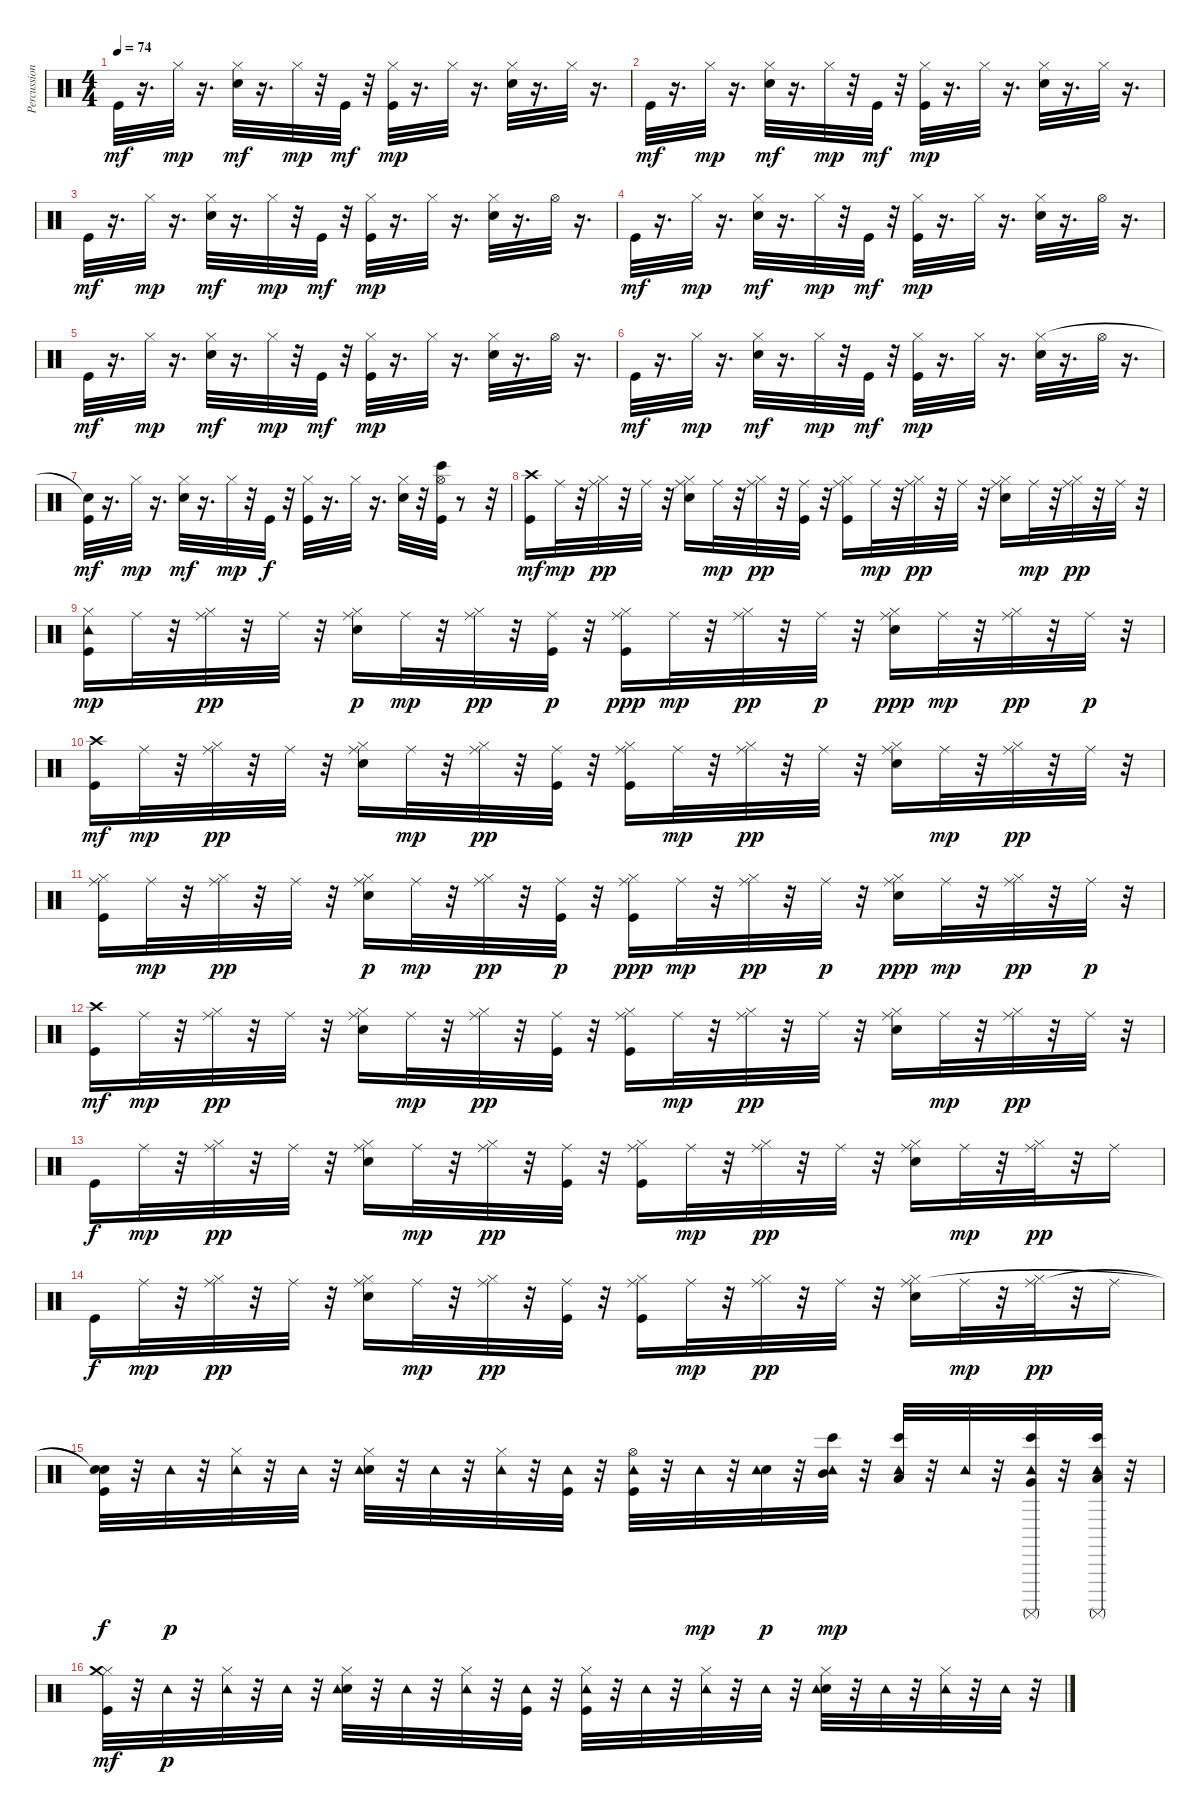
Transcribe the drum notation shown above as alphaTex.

\track ("Percussion" "Percussion") {instrument percussion}
\staff {score}
\articulation defaults
\ts (4 4)
\tempo 74
\clef neutral
\ks c "Kick (hit)".32{dy mf}
r.16{d} "Hi-Hat (closed)".32{dy mp} r.16{d} ("Snare (hit) 2" "Hi-Hat (closed)").32{dy mf} r.16{d} "Hi-Hat (closed)".32{dy mp} r.32 "Kick (hit)".32{dy mf} r.32 ("Kick (hit)" "Hi-Hat (closed)").32{dy mp} r.16{d} "Hi-Hat (closed)".32 r.16{d} ("Snare (hit) 2" "Hi-Hat (closed)").32 r.16{d} "Hi-Hat (closed)".32 r.16{d} |
"Kick (hit)".32{dy mf} r.16{d} "Hi-Hat (closed)".32{dy mp} r.16{d} ("Snare (hit) 2" "Hi-Hat (closed)").32{dy mf} r.16{d} "Hi-Hat (closed)".32{dy mp} r.32 "Kick (hit)".32{dy mf} r.32 ("Kick (hit)" "Hi-Hat (closed)").32{dy mp} r.16{d} "Hi-Hat (closed)".32 r.16{d} ("Snare (hit) 2" "Hi-Hat (closed)").32 r.16{d} "Hi-Hat (closed)".32 r.16{d} |
"Kick (hit)".32{dy mf} r.16{d} "Hi-Hat (closed)".32{dy mp} r.16{d} ("Snare (hit) 2" "Hi-Hat (closed)").32{dy mf} r.16{d} "Hi-Hat (closed)".32{dy mp} r.32 "Kick (hit)".32{dy mf} r.32 ("Kick (hit)" "Hi-Hat (closed)").32{dy mp} r.16{d} "Hi-Hat (closed)".32 r.16{d} ("Snare (hit) 2" "Hi-Hat (closed)").32 r.16{d} "Hi-Hat (open)".32 r.16{d} |
"Kick (hit)".32{dy mf} r.16{d} "Hi-Hat (closed)".32{dy mp} r.16{d} ("Snare (hit) 2" "Hi-Hat (closed)").32{dy mf} r.16{d} "Hi-Hat (closed)".32{dy mp} r.32 "Kick (hit)".32{dy mf} r.32 ("Kick (hit)" "Hi-Hat (closed)").32{dy mp} r.16{d} "Hi-Hat (closed)".32 r.16{d} ("Snare (hit) 2" "Hi-Hat (closed)").32 r.16{d} "Hi-Hat (open)".32 r.16{d} |
"Kick (hit)".32{dy mf} r.16{d} "Hi-Hat (closed)".32{dy mp} r.16{d} ("Snare (hit) 2" "Hi-Hat (closed)").32{dy mf} r.16{d} "Hi-Hat (closed)".32{dy mp} r.32 "Kick (hit)".32{dy mf} r.32 ("Kick (hit)" "Hi-Hat (closed)").32{dy mp} r.16{d} "Hi-Hat (closed)".32 r.16{d} ("Snare (hit) 2" "Hi-Hat (closed)").32 r.16{d} "Hi-Hat (open)".32 r.16{d} |
"Kick (hit)".32{dy mf} r.16{d} "Hi-Hat (closed)".32{dy mp} r.16{d} ("Snare (hit) 2" "Hi-Hat (closed)").32{dy mf} r.16{d} "Hi-Hat (closed)".32{dy mp} r.32 "Kick (hit)".32{dy mf} r.32 ("Kick (hit)" "Hi-Hat (closed)").32{dy mp} r.16{d} "Hi-Hat (closed)".32 r.16{d} ("Snare (hit) 2" "Hi-Hat (closed)").32 r.16{d} "Hi-Hat (open)".32 r.16{d} |
("Kick (hit)" "Snare (hit)"{t}).32{dy mf} r.16{d} "Hi-Hat (closed)".32{dy mp} r.16{d} ("Snare (hit) 2" "Hi-Hat (closed)").32{dy mf} r.16{d} "Hi-Hat (closed)".32{dy mp} r.32 "Kick (hit)".32{dy f} r.32 ("Kick (hit)" "Hi-Hat (closed)").32 r.16{d} "Hi-Hat (closed)".32 r.16{d} ("Snare (hit) 2" "Hi-Hat (closed)").32 r.32 ("Kick (hit)" "Hi-Hat (open)" "Bongo High (hit)").32 r.8 r.32 |
("Kick (hit)" "Crash high (hit)").16{dy mf} "Ride (middle)".32{dy mp} r.32 ("Hi-Hat (closed)" "Ride (middle)").32{dy pp} r.32 "Ride (middle)".32 r.32 ("Snare (hit) 2" "Hi-Hat (closed)" "Ride (middle)").16 "Ride (middle)".32{dy mp} r.32 ("Hi-Hat (closed)" "Ride (middle)").32{dy pp} r.32 ("Kick (hit)" "Ride (middle)").32 r.32 ("Kick (hit)" "Hi-Hat (closed)" "Ride (middle)").16 "Ride (middle)".32{dy mp} r.32 ("Hi-Hat (closed)" "Ride (middle)").32{dy pp} r.32 "Ride (middle)".32 r.32 ("Snare (hit) 2" "Hi-Hat (closed)" "Ride (middle)").16 "Ride (middle)".32{dy mp} r.32 ("Hi-Hat (closed)" "Ride (middle)").32{dy pp} r.32 "Ride (middle)".32 r.32 |
("Kick (hit)" "Hi-Hat (closed)" "Tambourine (hit)").16{dy mp} "Ride (middle)".32 r.32 ("Hi-Hat (closed)" "Ride (middle)").32{dy pp} r.32 "Ride (middle)".32 r.32 ("Snare (hit) 2" "Hi-Hat (closed)" "Ride (middle)").16{dy p} "Ride (middle)".32{dy mp} r.32 ("Hi-Hat (closed)" "Ride (middle)").32{dy pp} r.32 ("Kick (hit)" "Ride (middle)").32{dy p} r.32 ("Kick (hit)" "Hi-Hat (closed)" "Ride (middle)").16{dy ppp} "Ride (middle)".32{dy mp} r.32 ("Hi-Hat (closed)" "Ride (middle)").32{dy pp} r.32 "Ride (middle)".32{dy p} r.32 ("Snare (hit) 2" "Hi-Hat (closed)" "Ride (middle)").16{dy ppp} "Ride (middle)".32{dy mp} r.32 ("Hi-Hat (closed)" "Ride (middle)").32{dy pp} r.32 "Ride (middle)".32{dy p} r.32 |
("Kick (hit)" "Crash high (hit)").16{dy mf} "Ride (middle)".32{dy mp} r.32 ("Hi-Hat (closed)" "Ride (middle)").32{dy pp} r.32 "Ride (middle)".32 r.32 ("Snare (hit) 2" "Hi-Hat (closed)" "Ride (middle)").16 "Ride (middle)".32{dy mp} r.32 ("Hi-Hat (closed)" "Ride (middle)").32{dy pp} r.32 ("Kick (hit)" "Ride (middle)").32 r.32 ("Kick (hit)" "Hi-Hat (closed)" "Ride (middle)").16 "Ride (middle)".32{dy mp} r.32 ("Hi-Hat (closed)" "Ride (middle)").32{dy pp} r.32 "Ride (middle)".32 r.32 ("Snare (hit) 2" "Hi-Hat (closed)" "Ride (middle)").16 "Ride (middle)".32{dy mp} r.32 ("Hi-Hat (closed)" "Ride (middle)").32{dy pp} r.32 "Ride (middle)".32 r.32 |
("Kick (hit)" "Hi-Hat (closed)" "Ride (middle)").16 "Ride (middle)".32{dy mp} r.32 ("Hi-Hat (closed)" "Ride (middle)").32{dy pp} r.32 "Ride (middle)".32 r.32 ("Snare (hit) 2" "Hi-Hat (closed)" "Ride (middle)").16{dy p} "Ride (middle)".32{dy mp} r.32 ("Hi-Hat (closed)" "Ride (middle)").32{dy pp} r.32 ("Kick (hit)" "Ride (middle)").32{dy p} r.32 ("Kick (hit)" "Hi-Hat (closed)" "Ride (middle)").16{dy ppp} "Ride (middle)".32{dy mp} r.32 ("Hi-Hat (closed)" "Ride (middle)").32{dy pp} r.32 "Ride (middle)".32{dy p} r.32 ("Snare (hit) 2" "Hi-Hat (closed)" "Ride (middle)").16{dy ppp} "Ride (middle)".32{dy mp} r.32 ("Hi-Hat (closed)" "Ride (middle)").32{dy pp} r.32 "Ride (middle)".32{dy p} r.32 |
("Kick (hit)" "Crash high (hit)").16{dy mf} "Ride (middle)".32{dy mp} r.32 ("Hi-Hat (closed)" "Ride (middle)").32{dy pp} r.32 "Ride (middle)".32 r.32 ("Snare (hit) 2" "Hi-Hat (closed)" "Ride (middle)").16 "Ride (middle)".32{dy mp} r.32 ("Hi-Hat (closed)" "Ride (middle)").32{dy pp} r.32 ("Kick (hit)" "Ride (middle)").32 r.32 ("Kick (hit)" "Hi-Hat (closed)" "Ride (middle)").16 "Ride (middle)".32{dy mp} r.32 ("Hi-Hat (closed)" "Ride (middle)").32{dy pp} r.32 "Ride (middle)".32 r.32 ("Snare (hit) 2" "Hi-Hat (closed)" "Ride (middle)").16 "Ride (middle)".32{dy mp} r.32 ("Hi-Hat (closed)" "Ride (middle)").32{dy pp} r.32 "Ride (middle)".32 r.32 |
"Kick (hit)".16{dy f} "Ride (middle)".32{dy mp} r.32 ("Hi-Hat (closed)" "Ride (middle)").32{dy pp} r.32 "Ride (middle)".32 r.32 ("Snare (hit) 2" "Hi-Hat (closed)" "Ride (middle)").16 "Ride (middle)".32{dy mp} r.32 ("Hi-Hat (closed)" "Ride (middle)").32{dy pp} r.32 ("Kick (hit)" "Ride (middle)").32 r.32 ("Kick (hit)" "Hi-Hat (closed)" "Ride (middle)").16 "Ride (middle)".32{dy mp} r.32 ("Hi-Hat (closed)" "Ride (middle)").32{dy pp} r.32 "Ride (middle)".32 r.32 ("Snare (hit) 2" "Hi-Hat (closed)" "Ride (middle)").16 "Ride (middle)".32{dy mp} r.32 ("Hi-Hat (closed)" "Ride (middle)").32{dy pp} r.32 "Ride (middle)".16 |
"Kick (hit)".16{dy f} "Ride (middle)".32{dy mp} r.32 ("Hi-Hat (closed)" "Ride (middle)").32{dy pp} r.32 "Ride (middle)".32 r.32 ("Snare (hit) 2" "Hi-Hat (closed)" "Ride (middle)").16 "Ride (middle)".32{dy mp} r.32 ("Hi-Hat (closed)" "Ride (middle)").32{dy pp} r.32 ("Kick (hit)" "Ride (middle)").32 r.32 ("Kick (hit)" "Hi-Hat (closed)" "Ride (middle)").16 "Ride (middle)".32{dy mp} r.32 ("Hi-Hat (closed)" "Ride (middle)").32{dy pp} r.32 "Ride (middle)".32 r.32 ("Snare (hit) 2" "Hi-Hat (closed)" "Ride (middle)").16 "Ride (middle)".32{dy mp} r.32 ("Hi-Hat (closed)" "Ride (middle)").32{dy pp} r.32 "Ride (middle)".16 |
("Kick (hit)" "Snare (hit)"{t} "Snare (hit)"{t}).32{dy f} r.32 "Tambourine (hit)".32{dy p} r.32 ("Hi-Hat (closed)" "Tambourine (hit)").32 r.32 "Tambourine (hit)".32 r.32 ("Snare (hit) 2" "Hi-Hat (closed)" "Tambourine (hit)").32 r.32 "Tambourine (hit)".32 r.32 ("Hi-Hat (closed)" "Tambourine (hit)").32 r.32 ("Kick (hit)" "Tambourine (hit)").32 r.32 ("Kick (hit)" "Hi-Hat (open)" "Tambourine (hit)").32 r.32 "Tambourine (hit)".32{dy mp} r.32 ("Snare (hit) 2" "Tambourine (hit)").32{dy p} r.32 ("Mid Tom (hit)" "Tambourine (hit)" "Bongo High (hit)").32{dy mp} r.32 ("Low Tom (hit)" "Tambourine (hit)" "Bongo High (hit)").32 r.32 "Tambourine (hit)".32 r.32 ("Very Low Tom (hit)" "Tambourine (hit)" "Bongo High (hit)" "Surdo (mute)").32 r.32 ("Low Floor Tom (hit)" "Tambourine (hit)" "Bongo High (hit)" "Surdo (mute)").32 r.32 |
("Kick (hit)" "Hi-Hat (closed)" "Crash medium (hit)").32{dy mf} r.32 "Tambourine (hit)".32{dy p} r.32 ("Hi-Hat (closed)" "Tambourine (hit)").32 r.32 "Tambourine (hit)".32 r.32 ("Snare (hit) 2" "Hi-Hat (closed)" "Tambourine (hit)").32 r.32 "Tambourine (hit)".32 r.32 ("Hi-Hat (closed)" "Tambourine (hit)").32 r.32 ("Kick (hit)" "Tambourine (hit)").32 r.32 ("Kick (hit)" "Hi-Hat (closed)" "Tambourine (hit)").32 r.32 "Tambourine (hit)".32 r.32 ("Hi-Hat (closed)" "Tambourine (hit)").32 r.32 "Tambourine (hit)".32 r.32 ("Snare (hit) 2" "Hi-Hat (closed)" "Tambourine (hit)").32 r.32 "Tambourine (hit)".32 r.32 ("Hi-Hat (closed)" "Tambourine (hit)").32 r.32 "Tambourine (hit)".32 r.32
